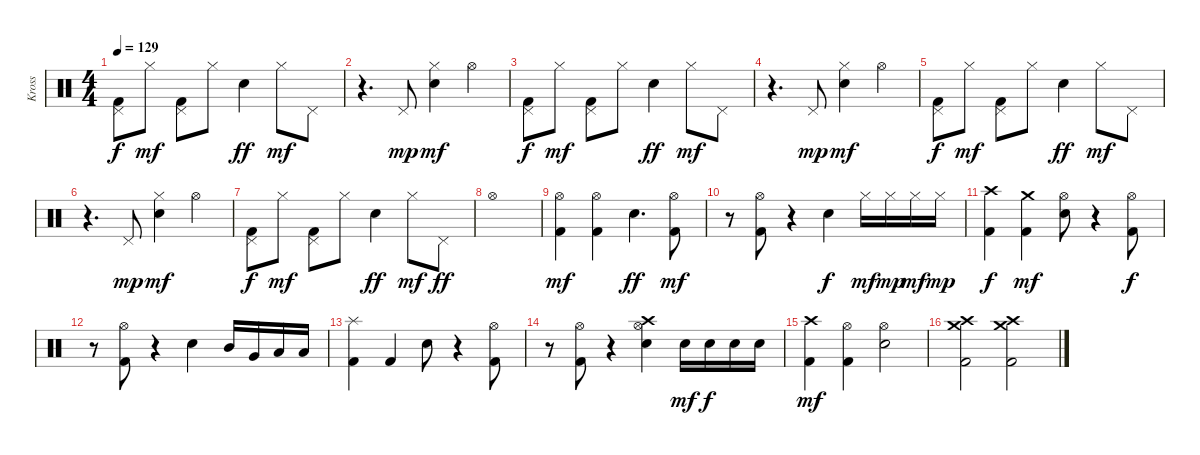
\track ("Kross" "Kross") {instrument percussion}
\staff {score}
\articulation defaults
\ts (4 4)
\tempo 129
\clef neutral
\ks c
("Pedal Hi-Hat (hit)" "Kick (hit) 2").8{dy f} "Hi-Hat (closed)".8{dy mf} ("Pedal Hi-Hat (hit)" "Kick (hit) 2").8 "Hi-Hat (closed)".8 "Electric Snare (hit)".4{dy ff} "Hi-Hat (closed)".8{dy mf} "Pedal Hi-Hat (hit)".8 |
r.4{d} "Pedal Hi-Hat (hit)".8{dy mp} ("Hi-Hat (closed)" "Electric Snare (hit)").4{dy mf} "Hi-Hat (open)".4 |
("Pedal Hi-Hat (hit)" "Kick (hit) 2").8{dy f} "Hi-Hat (closed)".8{dy mf} ("Pedal Hi-Hat (hit)" "Kick (hit) 2").8 "Hi-Hat (closed)".8 "Electric Snare (hit)".4{dy ff} "Hi-Hat (closed)".8{dy mf} "Pedal Hi-Hat (hit)".8 |
r.4{d} "Pedal Hi-Hat (hit)".8{dy mp} ("Hi-Hat (closed)" "Electric Snare (hit)").4{dy mf} "Hi-Hat (open)".4 |
("Pedal Hi-Hat (hit)" "Kick (hit) 2").8{dy f} "Hi-Hat (closed)".8{dy mf} ("Pedal Hi-Hat (hit)" "Kick (hit) 2").8 "Hi-Hat (closed)".8 "Electric Snare (hit)".4{dy ff} "Hi-Hat (closed)".8{dy mf} "Pedal Hi-Hat (hit)".8 |
r.4{d} "Pedal Hi-Hat (hit)".8{dy mp} ("Hi-Hat (closed)" "Electric Snare (hit)").4{dy mf} "Hi-Hat (open)".4 |
("Pedal Hi-Hat (hit)" "Kick (hit) 2").8{dy f} "Hi-Hat (closed)".8{dy mf} ("Pedal Hi-Hat (hit)" "Kick (hit) 2").8 "Hi-Hat (closed)".8 "Electric Snare (hit)".4{dy ff} "Hi-Hat (closed)".8{dy mf} "Pedal Hi-Hat (hit)".8{dy ff} |
"Hi-Hat (open)".1 |
("Hi-Hat (open)" "Kick (hit) 2").4{dy mf} ("Hi-Hat (open)" "Kick (hit) 2").4 "Electric Snare (hit)".4{d dy ff} ("Hi-Hat (open)" "Kick (hit) 2").8{dy mf} |
r.8 ("Hi-Hat (open)" "Kick (hit) 2").8 r.4 "Electric Snare (hit)".4{dy f} "Hi-Hat (closed)".16{dy mf} "Hi-Hat (closed)".16{dy mp} "Hi-Hat (closed)".16{dy mf} "Hi-Hat (closed)".16{dy mp} |
("Crash high (hit)" "Kick (hit) 2").4{dy f} ("Crash medium (hit)" "Kick (hit) 2").4{dy mf} ("Hi-Hat (open)" "Electric Snare (hit)").8 r.4 ("Hi-Hat (open)" "Kick (hit) 2").8{dy f} |
r.8 ("Hi-Hat (open)" "Kick (hit) 2").8 r.4 "Electric Snare (hit)".4 "Mid Tom (hit)".16 "Very Low Tom (hit)".16 "Low Tom (hit)".16 "Low Tom (hit)".16 |
("Splash (hit)" "Kick (hit) 2").4 "Kick (hit) 2".4 "Electric Snare (hit)".8 r.4 ("Hi-Hat (open)" "Kick (hit) 2").8 |
r.8 ("Hi-Hat (open)" "Kick (hit) 2").8 r.4 ("Crash high (hit)" "Hi-Hat (open)" "Electric Snare (hit)").4 "Electric Snare (hit)".16{dy mf} "Electric Snare (hit)".16{dy f} "Electric Snare (hit)".16 "Electric Snare (hit)".16 |
("Crash high (hit)" "Kick (hit) 2").4{dy mf} ("Hi-Hat (open)" "Kick (hit) 2").4 ("Hi-Hat (open)" "Electric Snare (hit)").2 |
("Crash medium (hit)" "Crash high (hit)" "Kick (hit) 2").2 ("Crash medium (hit)" "Crash high (hit)" "Kick (hit) 2").2
